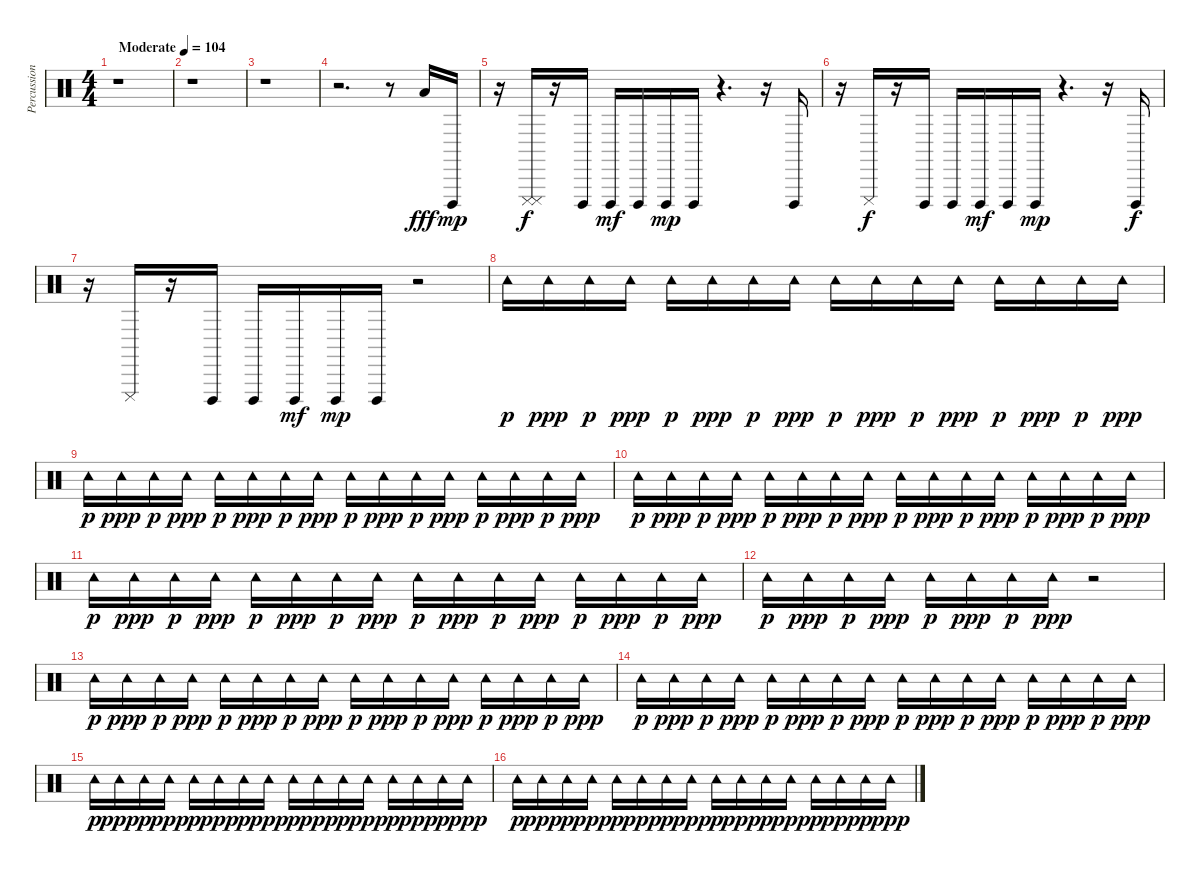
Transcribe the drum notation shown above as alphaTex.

\track ("Percussion & Drums" "Percussion") {instrument percussion}
\staff {score}
\articulation defaults
\ts (4 4)
\tempo (104 "Moderate")
\clef neutral
\ks c
r.1{dy fff} |
r.1 |
r.1 |
r.2{d} r.8 "Low Floor Tom (hit)".16 "Cuica (open)".16{dy mp} |
r.16 ("Cuica (mute)" "Cuica (mute)").16{dy f} r.16 "Cuica (open)".16 "Cuica (open)".16{dy mf} "Cuica (open)".16 "Cuica (open)".16{dy mp} "Cuica (open)".16 r.4{d} r.16 "Cuica (open)".16 |
r.16 "Cuica (mute)".16{dy f} r.16 "Cuica (open)".16 "Cuica (open)".16 "Cuica (open)".16{dy mf} "Cuica (open)".16 "Cuica (open)".16{dy mp} r.4{d} r.16 "Cuica (open)".16{dy f} |
r.16 "Cuica (mute)".16 r.16 "Cuica (open)".16 "Cuica (open)".16 "Cuica (open)".16{dy mf} "Cuica (open)".16{dy mp} "Cuica (open)".16 r.2 |
"Tambourine (hit)".16{dy p} "Tambourine (hit)".16{dy ppp} "Tambourine (hit)".16{dy p} "Tambourine (hit)".16{dy ppp} "Tambourine (hit)".16{dy p} "Tambourine (hit)".16{dy ppp} "Tambourine (hit)".16{dy p} "Tambourine (hit)".16{dy ppp} "Tambourine (hit)".16{dy p} "Tambourine (hit)".16{dy ppp} "Tambourine (hit)".16{dy p} "Tambourine (hit)".16{dy ppp} "Tambourine (hit)".16{dy p} "Tambourine (hit)".16{dy ppp} "Tambourine (hit)".16{dy p} "Tambourine (hit)".16{dy ppp} |
"Tambourine (hit)".16{dy p} "Tambourine (hit)".16{dy ppp} "Tambourine (hit)".16{dy p} "Tambourine (hit)".16{dy ppp} "Tambourine (hit)".16{dy p} "Tambourine (hit)".16{dy ppp} "Tambourine (hit)".16{dy p} "Tambourine (hit)".16{dy ppp} "Tambourine (hit)".16{dy p} "Tambourine (hit)".16{dy ppp} "Tambourine (hit)".16{dy p} "Tambourine (hit)".16{dy ppp} "Tambourine (hit)".16{dy p} "Tambourine (hit)".16{dy ppp} "Tambourine (hit)".16{dy p} "Tambourine (hit)".16{dy ppp} |
"Tambourine (hit)".16{dy p} "Tambourine (hit)".16{dy ppp} "Tambourine (hit)".16{dy p} "Tambourine (hit)".16{dy ppp} "Tambourine (hit)".16{dy p} "Tambourine (hit)".16{dy ppp} "Tambourine (hit)".16{dy p} "Tambourine (hit)".16{dy ppp} "Tambourine (hit)".16{dy p} "Tambourine (hit)".16{dy ppp} "Tambourine (hit)".16{dy p} "Tambourine (hit)".16{dy ppp} "Tambourine (hit)".16{dy p} "Tambourine (hit)".16{dy ppp} "Tambourine (hit)".16{dy p} "Tambourine (hit)".16{dy ppp} |
"Tambourine (hit)".16{dy p} "Tambourine (hit)".16{dy ppp} "Tambourine (hit)".16{dy p} "Tambourine (hit)".16{dy ppp} "Tambourine (hit)".16{dy p} "Tambourine (hit)".16{dy ppp} "Tambourine (hit)".16{dy p} "Tambourine (hit)".16{dy ppp} "Tambourine (hit)".16{dy p} "Tambourine (hit)".16{dy ppp} "Tambourine (hit)".16{dy p} "Tambourine (hit)".16{dy ppp} "Tambourine (hit)".16{dy p} "Tambourine (hit)".16{dy ppp} "Tambourine (hit)".16{dy p} "Tambourine (hit)".16{dy ppp} |
"Tambourine (hit)".16{dy p} "Tambourine (hit)".16{dy ppp} "Tambourine (hit)".16{dy p} "Tambourine (hit)".16{dy ppp} "Tambourine (hit)".16{dy p} "Tambourine (hit)".16{dy ppp} "Tambourine (hit)".16{dy p} "Tambourine (hit)".16{dy ppp} r.2 |
"Tambourine (hit)".16{dy p} "Tambourine (hit)".16{dy ppp} "Tambourine (hit)".16{dy p} "Tambourine (hit)".16{dy ppp} "Tambourine (hit)".16{dy p} "Tambourine (hit)".16{dy ppp} "Tambourine (hit)".16{dy p} "Tambourine (hit)".16{dy ppp} "Tambourine (hit)".16{dy p} "Tambourine (hit)".16{dy ppp} "Tambourine (hit)".16{dy p} "Tambourine (hit)".16{dy ppp} "Tambourine (hit)".16{dy p} "Tambourine (hit)".16{dy ppp} "Tambourine (hit)".16{dy p} "Tambourine (hit)".16{dy ppp} |
"Tambourine (hit)".16{dy p} "Tambourine (hit)".16{dy ppp} "Tambourine (hit)".16{dy p} "Tambourine (hit)".16{dy ppp} "Tambourine (hit)".16{dy p} "Tambourine (hit)".16{dy ppp} "Tambourine (hit)".16{dy p} "Tambourine (hit)".16{dy ppp} "Tambourine (hit)".16{dy p} "Tambourine (hit)".16{dy ppp} "Tambourine (hit)".16{dy p} "Tambourine (hit)".16{dy ppp} "Tambourine (hit)".16{dy p} "Tambourine (hit)".16{dy ppp} "Tambourine (hit)".16{dy p} "Tambourine (hit)".16{dy ppp} |
"Tambourine (hit)".16{dy p} "Tambourine (hit)".16{dy ppp} "Tambourine (hit)".16{dy p} "Tambourine (hit)".16{dy ppp} "Tambourine (hit)".16{dy p} "Tambourine (hit)".16{dy ppp} "Tambourine (hit)".16{dy p} "Tambourine (hit)".16{dy ppp} "Tambourine (hit)".16{dy p} "Tambourine (hit)".16{dy ppp} "Tambourine (hit)".16{dy p} "Tambourine (hit)".16{dy ppp} "Tambourine (hit)".16{dy p} "Tambourine (hit)".16{dy ppp} "Tambourine (hit)".16{dy p} "Tambourine (hit)".16{dy ppp} |
"Tambourine (hit)".16{dy p} "Tambourine (hit)".16{dy ppp} "Tambourine (hit)".16{dy p} "Tambourine (hit)".16{dy ppp} "Tambourine (hit)".16{dy p} "Tambourine (hit)".16{dy ppp} "Tambourine (hit)".16{dy p} "Tambourine (hit)".16{dy ppp} "Tambourine (hit)".16{dy p} "Tambourine (hit)".16{dy ppp} "Tambourine (hit)".16{dy p} "Tambourine (hit)".16{dy ppp} "Tambourine (hit)".16{dy p} "Tambourine (hit)".16{dy ppp} "Tambourine (hit)".16{dy p} "Tambourine (hit)".16{dy ppp}
